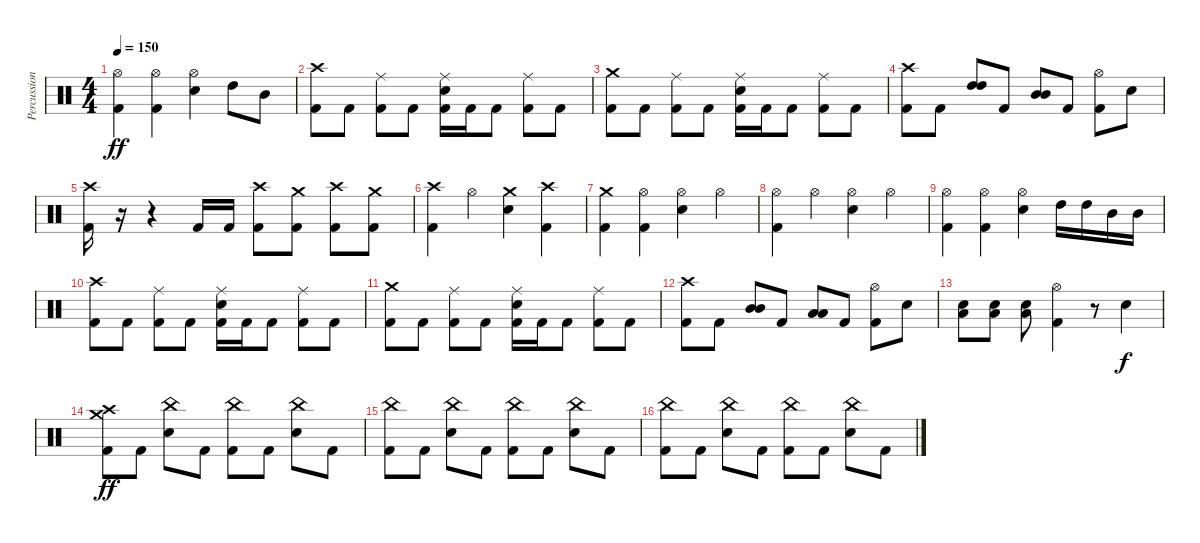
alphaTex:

\track ("Percussion" "Percussion") {instrument percussion}
\staff {score}
\articulation defaults
\ts (4 4)
\tempo 150
\clef neutral
\ks c
("Hi-Hat (open)" "Kick (hit) 2").4{dy ff} ("Hi-Hat (open)" "Kick (hit) 2").4 ("Hi-Hat (open)" "Snare (hit) 2").4 "High Tom (hit)".8 "Mid Tom (hit)".8 |
("Crash high (hit)" "Kick (hit) 2").8 "Kick (hit) 2".8 ("Ride (middle)" "Kick (hit) 2").8 "Kick (hit) 2".8 ("Ride (middle)" "Snare (hit) 2" "Kick (hit) 2").16 "Kick (hit) 2".16 "Kick (hit) 2".8 ("Ride (middle)" "Kick (hit) 2").8 "Kick (hit) 2".8 |
("Crash medium (hit)" "Kick (hit) 2").8 "Kick (hit) 2".8 ("Ride (middle)" "Kick (hit) 2").8 "Kick (hit) 2".8 ("Ride (middle)" "Snare (hit) 2" "Kick (hit) 2").16 "Kick (hit) 2".16 "Kick (hit) 2".8 ("Ride (middle)" "Kick (hit) 2").8 "Kick (hit) 2".8 |
("Crash high (hit)" "Kick (hit) 2").8 "Kick (hit) 2".8 ("High Tom (hit)" "High Tom (hit)").8 "Kick (hit) 2".8 ("Mid Tom (hit)" "Mid Tom (hit)").8 "Kick (hit) 2".8 ("Hi-Hat (open)" "Kick (hit) 2").8 "Snare (hit) 2".8 |
("Crash high (hit)" "Kick (hit) 2").16 r.16 r.4 "Kick (hit) 2".16 "Kick (hit) 2".16 ("Crash high (hit)" "Kick (hit) 2").8 ("Crash medium (hit)" "Kick (hit) 2").8 ("Crash high (hit)" "Kick (hit) 2").8 ("Crash medium (hit)" "Kick (hit) 2").8 |
("Crash high (hit)" "Kick (hit) 2").4 "Hi-Hat (open)".4 ("Crash medium (hit)" "Snare (hit) 2").4 ("Crash high (hit)" "Kick (hit) 2").4 |
("Crash medium (hit)" "Kick (hit) 2").4 ("Hi-Hat (open)" "Kick (hit) 2").4 ("Hi-Hat (open)" "Snare (hit) 2").4 "Hi-Hat (open)".4 |
("Hi-Hat (open)" "Kick (hit) 2").4 "Hi-Hat (open)".4 ("Hi-Hat (open)" "Snare (hit) 2").4 "Hi-Hat (open)".4 |
("Hi-Hat (open)" "Kick (hit) 2").4 ("Hi-Hat (open)" "Kick (hit) 2").4 ("Hi-Hat (open)" "Snare (hit) 2").4 "High Tom (hit)".16 "High Tom (hit)".16 "Mid Tom (hit)".16 "Mid Tom (hit)".16 |
("Crash high (hit)" "Kick (hit) 2").8 "Kick (hit) 2".8 ("Ride (middle)" "Kick (hit) 2").8 "Kick (hit) 2".8 ("Ride (middle)" "Snare (hit) 2" "Kick (hit) 2").16 "Kick (hit) 2".16 "Kick (hit) 2".8 ("Ride (middle)" "Kick (hit) 2").8 "Kick (hit) 2".8 |
("Crash medium (hit)" "Kick (hit) 2").8 "Kick (hit) 2".8 ("Ride (middle)" "Kick (hit) 2").8 "Kick (hit) 2".8 ("Ride (middle)" "Snare (hit) 2" "Kick (hit) 2").16 "Kick (hit) 2".16 "Kick (hit) 2".8 ("Ride (middle)" "Kick (hit) 2").8 "Kick (hit) 2".8 |
("Crash high (hit)" "Kick (hit) 2").8 "Kick (hit) 2".8 ("Mid Tom (hit)" "Mid Tom (hit)").8 "Kick (hit) 2".8 ("Low Tom (hit)" "Low Tom (hit)").8 "Kick (hit) 2".8 ("Hi-Hat (open)" "Kick (hit) 2").8 "Snare (hit) 2".8 |
("Low Tom (hit)" "Snare (hit) 2").8 ("Low Tom (hit)" "Snare (hit) 2").8 ("Low Tom (hit)" "Snare (hit) 2").8 ("Hi-Hat (open)" "Kick (hit) 2").4 r.8 "Snare (hit) 2".4{dy f} |
("Crash high (hit)" "Crash medium (hit)" "Kick (hit) 2").8{dy ff} "Kick (hit) 2".8 ("China (hit)" "Snare (hit) 2").8 "Kick (hit) 2".8 ("China (hit)" "Kick (hit) 2").8 "Kick (hit) 2".8 ("China (hit)" "Snare (hit) 2").8 "Kick (hit) 2".8 |
("China (hit)" "Kick (hit) 2").8 "Kick (hit) 2".8 ("China (hit)" "Snare (hit) 2").8 "Kick (hit) 2".8 ("China (hit)" "Kick (hit) 2").8 "Kick (hit) 2".8 ("China (hit)" "Snare (hit) 2").8 "Kick (hit) 2".8 |
("China (hit)" "Kick (hit) 2").8 "Kick (hit) 2".8 ("China (hit)" "Snare (hit) 2").8 "Kick (hit) 2".8 ("China (hit)" "Kick (hit) 2").8 "Kick (hit) 2".8 ("China (hit)" "Snare (hit) 2").8 "Kick (hit) 2".8
